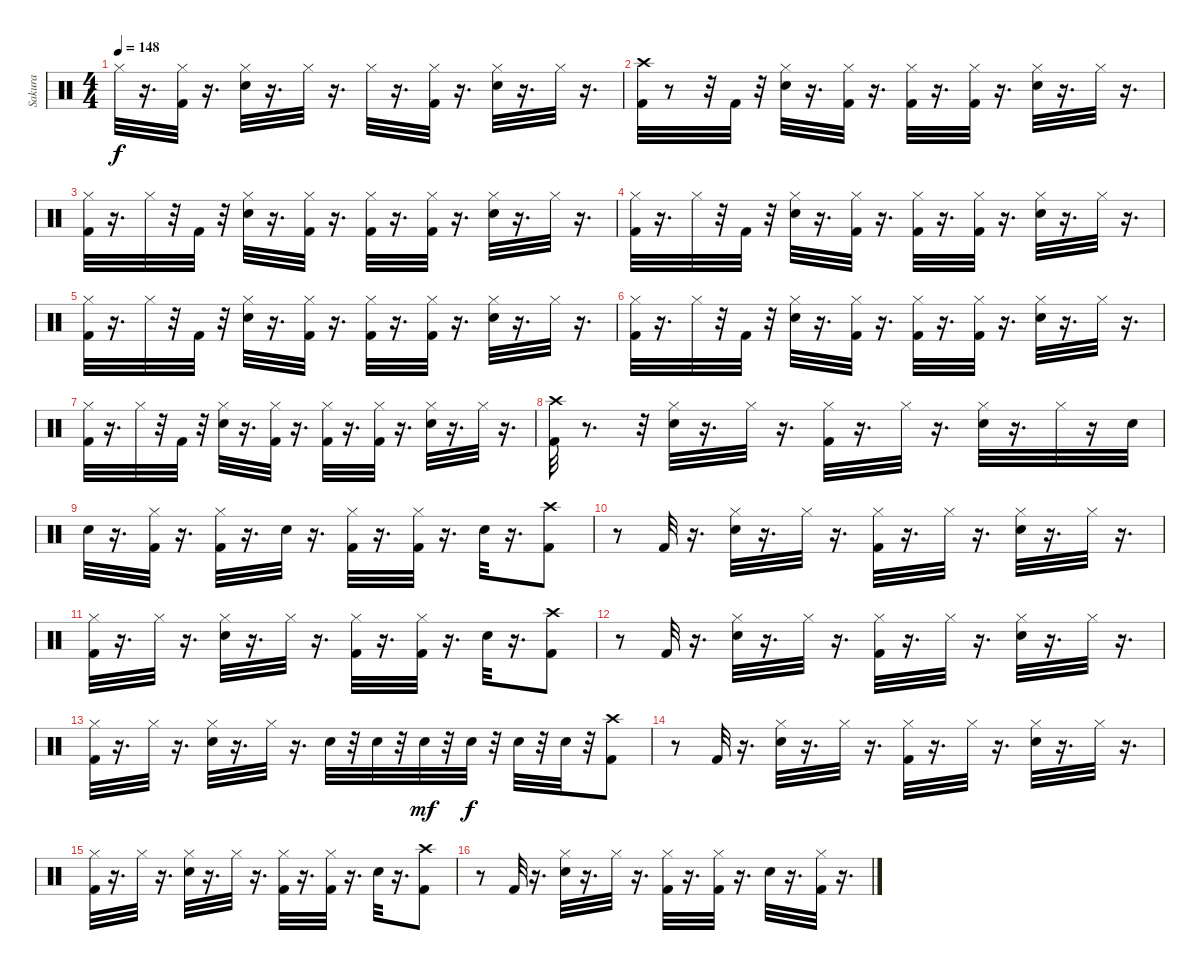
\track ("Sakura" "Sakura") {instrument percussion}
\staff {score}
\articulation defaults
\ts (4 4)
\tempo 148
\clef neutral
\ks c "Hi-Hat (closed)".32{dy f}
r.16{d} ("Hi-Hat (closed)" "Kick (hit) 2").32 r.16{d} ("Hi-Hat (closed)" "Snare (hit) 2").32 r.16{d} "Hi-Hat (closed)".32 r.16{d} "Hi-Hat (closed)".32 r.16{d} ("Hi-Hat (closed)" "Kick (hit) 2").32 r.16{d} ("Hi-Hat (closed)" "Snare (hit) 2").32 r.16{d} "Hi-Hat (closed)".32 r.16{d} |
("Crash high (hit)" "Kick (hit) 2").32 r.8 r.32 "Kick (hit) 2".32 r.32 ("Hi-Hat (closed)" "Snare (hit) 2").32 r.16{d} ("Hi-Hat (closed)" "Kick (hit) 2").32 r.16{d} ("Hi-Hat (closed)" "Kick (hit) 2").32 r.16{d} ("Hi-Hat (closed)" "Kick (hit) 2").32 r.16{d} ("Hi-Hat (closed)" "Snare (hit) 2").32 r.16{d} "Hi-Hat (closed)".32 r.16{d} |
("Kick (hit) 2" "Hi-Hat (closed)").32 r.16{d} "Hi-Hat (closed)".32 r.32 "Kick (hit) 2".32 r.32 ("Hi-Hat (closed)" "Snare (hit) 2").32 r.16{d} ("Hi-Hat (closed)" "Kick (hit) 2").32 r.16{d} ("Hi-Hat (closed)" "Kick (hit) 2").32 r.16{d} ("Hi-Hat (closed)" "Kick (hit) 2").32 r.16{d} ("Hi-Hat (closed)" "Snare (hit) 2").32 r.16{d} "Hi-Hat (closed)".32 r.16{d} |
("Kick (hit) 2" "Hi-Hat (closed)").32 r.16{d} "Hi-Hat (closed)".32 r.32 "Kick (hit) 2".32 r.32 ("Hi-Hat (closed)" "Snare (hit) 2").32 r.16{d} ("Hi-Hat (closed)" "Kick (hit) 2").32 r.16{d} ("Hi-Hat (closed)" "Kick (hit) 2").32 r.16{d} ("Hi-Hat (closed)" "Kick (hit) 2").32 r.16{d} ("Hi-Hat (closed)" "Snare (hit) 2").32 r.16{d} "Hi-Hat (closed)".32 r.16{d} |
("Kick (hit) 2" "Hi-Hat (closed)").32 r.16{d} "Hi-Hat (closed)".32 r.32 "Kick (hit) 2".32 r.32 ("Hi-Hat (closed)" "Snare (hit) 2").32 r.16{d} ("Hi-Hat (closed)" "Kick (hit) 2").32 r.16{d} ("Hi-Hat (closed)" "Kick (hit) 2").32 r.16{d} ("Hi-Hat (closed)" "Kick (hit) 2").32 r.16{d} ("Hi-Hat (closed)" "Snare (hit) 2").32 r.16{d} "Hi-Hat (closed)".32 r.16{d} |
("Kick (hit) 2" "Hi-Hat (closed)").32 r.16{d} "Hi-Hat (closed)".32 r.32 "Kick (hit) 2".32 r.32 ("Hi-Hat (closed)" "Snare (hit) 2").32 r.16{d} ("Hi-Hat (closed)" "Kick (hit) 2").32 r.16{d} ("Hi-Hat (closed)" "Kick (hit) 2").32 r.16{d} ("Hi-Hat (closed)" "Kick (hit) 2").32 r.16{d} ("Hi-Hat (closed)" "Snare (hit) 2").32 r.16{d} "Hi-Hat (closed)".32 r.16{d} |
("Kick (hit) 2" "Hi-Hat (closed)").32 r.16{d} "Hi-Hat (closed)".32 r.32 "Kick (hit) 2".32 r.32 ("Hi-Hat (closed)" "Snare (hit) 2").32 r.16{d} ("Hi-Hat (closed)" "Kick (hit) 2").32 r.16{d} ("Hi-Hat (closed)" "Kick (hit) 2").32 r.16{d} ("Hi-Hat (closed)" "Kick (hit) 2").32 r.16{d} ("Hi-Hat (closed)" "Snare (hit) 2").32 r.16{d} "Hi-Hat (closed)".32 r.16{d} |
("Crash high (hit)" "Kick (hit) 2").32 r.8{d} r.32 ("Hi-Hat (closed)" "Snare (hit) 2").32 r.16{d} "Hi-Hat (closed)".32 r.16{d} ("Kick (hit) 2" "Hi-Hat (closed)").32 r.16{d} "Hi-Hat (closed)".32 r.16{d} ("Hi-Hat (closed)" "Snare (hit) 2").32 r.16{d} "Hi-Hat (closed)".32 r.16 "Snare (hit) 2".32 |
"Snare (hit) 2".32 r.16{d} ("Hi-Hat (closed)" "Kick (hit) 2").32 r.16{d} ("Hi-Hat (closed)" "Kick (hit) 2").32 r.16{d} "Snare (hit) 2".32 r.16{d} ("Hi-Hat (closed)" "Kick (hit) 2").32 r.16{d} ("Hi-Hat (closed)" "Kick (hit) 2").32 r.16{d} "Snare (hit) 2".32 r.16{d} ("Crash high (hit)" "Kick (hit) 2").8 |
r.8 "Kick (hit) 2".32 r.16{d} ("Hi-Hat (closed)" "Snare (hit) 2").32 r.16{d} "Hi-Hat (closed)".32 r.16{d} ("Hi-Hat (closed)" "Kick (hit) 2").32 r.16{d} "Hi-Hat (closed)".32 r.16{d} ("Hi-Hat (closed)" "Snare (hit) 2").32 r.16{d} "Hi-Hat (closed)".32 r.16{d} |
("Hi-Hat (closed)" "Kick (hit) 2").32 r.16{d} "Hi-Hat (closed)".32 r.16{d} ("Hi-Hat (closed)" "Snare (hit) 2").32 r.16{d} "Hi-Hat (closed)".32 r.16{d} ("Hi-Hat (closed)" "Kick (hit) 2").32 r.16{d} ("Hi-Hat (closed)" "Kick (hit) 2").32 r.16{d} "Snare (hit) 2".32 r.16{d} ("Crash high (hit)" "Kick (hit) 2").8 |
r.8 "Kick (hit) 2".32 r.16{d} ("Hi-Hat (closed)" "Snare (hit) 2").32 r.16{d} "Hi-Hat (closed)".32 r.16{d} ("Hi-Hat (closed)" "Kick (hit) 2").32 r.16{d} "Hi-Hat (closed)".32 r.16{d} ("Hi-Hat (closed)" "Snare (hit) 2").32 r.16{d} "Hi-Hat (closed)".32 r.16{d} |
("Hi-Hat (closed)" "Kick (hit) 2").32 r.16{d} "Hi-Hat (closed)".32 r.16{d} ("Hi-Hat (closed)" "Snare (hit) 2").32 r.16{d} "Hi-Hat (closed)".32 r.16{d} "Snare (hit) 2".32 r.32 "Snare (hit) 2".32 r.32 "Snare (hit) 2".32{dy mf} r.32 "Snare (hit) 2".32{dy f} r.32 "Snare (hit) 2".32 r.32 "Snare (hit) 2".32 r.32 ("Crash high (hit)" "Kick (hit) 2").8 |
r.8 "Kick (hit) 2".32 r.16{d} ("Hi-Hat (closed)" "Snare (hit) 2").32 r.16{d} "Hi-Hat (closed)".32 r.16{d} ("Hi-Hat (closed)" "Kick (hit) 2").32 r.16{d} "Hi-Hat (closed)".32 r.16{d} ("Hi-Hat (closed)" "Snare (hit) 2").32 r.16{d} "Hi-Hat (closed)".32 r.16{d} |
("Hi-Hat (closed)" "Kick (hit) 2").32 r.16{d} "Hi-Hat (closed)".32 r.16{d} ("Hi-Hat (closed)" "Snare (hit) 2").32 r.16{d} "Hi-Hat (closed)".32 r.16{d} ("Hi-Hat (closed)" "Kick (hit) 2").32 r.16{d} ("Hi-Hat (closed)" "Kick (hit) 2").32 r.16{d} "Snare (hit) 2".32 r.16{d} ("Crash high (hit)" "Kick (hit) 2").8 |
r.8 "Kick (hit) 2".32 r.16{d} ("Hi-Hat (closed)" "Snare (hit) 2").32 r.16{d} "Hi-Hat (closed)".32 r.16{d} ("Hi-Hat (closed)" "Kick (hit) 2").32 r.16{d} ("Hi-Hat (closed)" "Kick (hit) 2").32 r.16{d} "Snare (hit) 2".32 r.16{d} ("Hi-Hat (closed)" "Kick (hit) 2").32 r.16{d}
